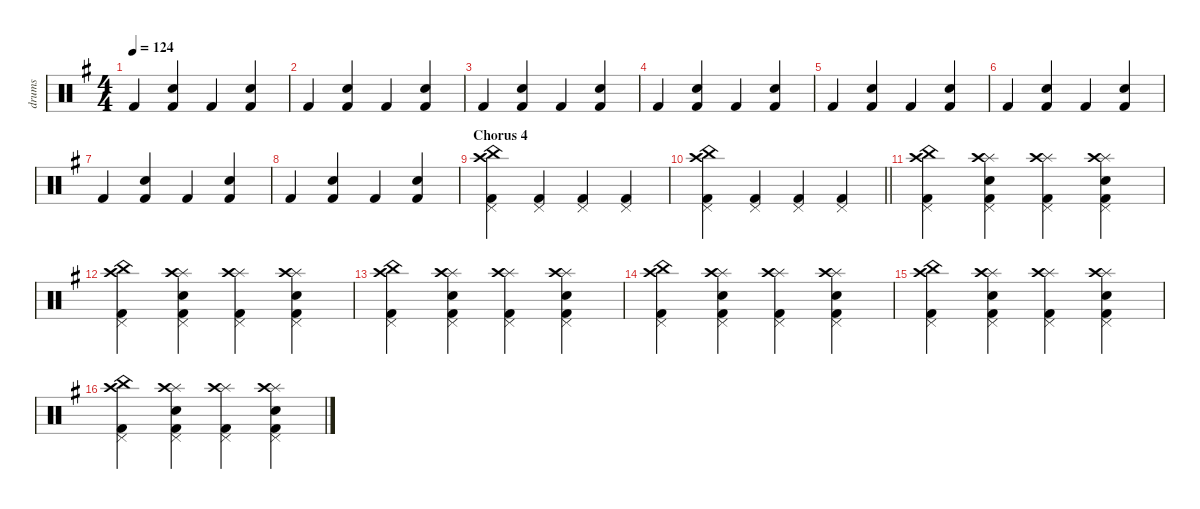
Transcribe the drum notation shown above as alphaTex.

\defaultSystemsLayout 4
\hideDynamics
\bracketExtendMode nobrackets
\otherSystemsTrackNameOrientation horizontal
\track ("drums" "drums") {instrument percussion}
\staff {score}
\articulation defaults
\ts (4 4)
\tempo 124
\clef neutral
\scale
1.07945
\ks eminor "Kick (hit) 2"{acc forcenatural}.4{dy mf beam Up}
("Kick (hit) 2"{acc forcenatural} "Snare (hit) 2"{acc forcenatural}).4{beam Up} "Kick (hit) 2"{acc forcenatural}.4{beam Up} ("Kick (hit) 2"{acc forcenatural} "Snare (hit) 2"{acc forcenatural}).4{beam Up} |
\scale
0.973518 "Kick (hit) 2"{acc forcenatural}.4{beam Up} ("Kick (hit) 2"{acc forcenatural} "Snare (hit) 2"{acc forcenatural}).4{beam Up} "Kick (hit) 2"{acc forcenatural}.4{beam Up} ("Kick (hit) 2"{acc forcenatural} "Snare (hit) 2"{acc forcenatural}).4{beam Up} |
\scale
0.973518 "Kick (hit) 2"{acc forcenatural}.4{beam Up} ("Kick (hit) 2"{acc forcenatural} "Snare (hit) 2"{acc forcenatural}).4{beam Up} "Kick (hit) 2"{acc forcenatural}.4{beam Up} ("Kick (hit) 2"{acc forcenatural} "Snare (hit) 2"{acc forcenatural}).4{beam Up} |
\scale
0.973518 "Kick (hit) 2"{acc forcenatural}.4{beam Up} ("Kick (hit) 2"{acc forcenatural} "Snare (hit) 2"{acc forcenatural}).4{beam Up} "Kick (hit) 2"{acc forcenatural}.4{beam Up} ("Kick (hit) 2"{acc forcenatural} "Snare (hit) 2"{acc forcenatural}).4{beam Up} |
\scale
1.07945 "Kick (hit) 2"{acc forcenatural}.4{beam Up} ("Kick (hit) 2"{acc forcenatural} "Snare (hit) 2"{acc forcenatural}).4{beam Up} "Kick (hit) 2"{acc forcenatural}.4{beam Up} ("Kick (hit) 2"{acc forcenatural} "Snare (hit) 2"{acc forcenatural}).4{beam Up} |
\scale
0.973518 "Kick (hit) 2"{acc forcenatural}.4{beam Up} ("Kick (hit) 2"{acc forcenatural} "Snare (hit) 2"{acc forcenatural}).4{beam Up} "Kick (hit) 2"{acc forcenatural}.4{beam Up} ("Kick (hit) 2"{acc forcenatural} "Snare (hit) 2"{acc forcenatural}).4{beam Up} |
\scale
0.973518 "Kick (hit) 2"{acc forcenatural}.4{beam Up} ("Kick (hit) 2"{acc forcenatural} "Snare (hit) 2"{acc forcenatural}).4{beam Up} "Kick (hit) 2"{acc forcenatural}.4{beam Up} ("Kick (hit) 2"{acc forcenatural} "Snare (hit) 2"{acc forcenatural}).4{beam Up} |
\scale
0.973518 "Kick (hit) 2"{acc forcenatural}.4{beam Up} ("Kick (hit) 2"{acc forcenatural} "Snare (hit) 2"{acc forcenatural}).4{beam Up} "Kick (hit) 2"{acc forcenatural}.4{beam Up} ("Kick (hit) 2"{acc forcenatural} "Snare (hit) 2"{acc forcenatural}).4{beam Up} |
\section ("" "Chorus 4")
\scale
1.07945 ("Kick (hit) 2"{acc forcenatural} "China (hit)"{acc forcenatural} "Crash high (hit)"{acc forcenatural} "Pedal Hi-Hat (hit)"{acc forcenatural}).4{beam Down} ("Kick (hit) 2"{acc forcenatural} "Pedal Hi-Hat (hit)"{acc forcenatural}).4{beam Up} ("Kick (hit) 2"{acc forcenatural} "Pedal Hi-Hat (hit)"{acc forcenatural}).4{beam Up} ("Kick (hit) 2"{acc forcenatural} "Pedal Hi-Hat (hit)"{acc forcenatural}).4{beam Up} |
\scale
0.973518
\barLineRight lightlight
("Kick (hit) 2"{acc forcenatural} "China (hit)"{acc forcenatural} "Crash high (hit)"{acc forcenatural} "Pedal Hi-Hat (hit)"{acc forcenatural}).4{beam Down} ("Kick (hit) 2"{acc forcenatural} "Pedal Hi-Hat (hit)"{acc forcenatural}).4{beam Up} ("Kick (hit) 2"{acc forcenatural} "Pedal Hi-Hat (hit)"{acc forcenatural}).4{beam Up} ("Kick (hit) 2"{acc forcenatural} "Pedal Hi-Hat (hit)"{acc forcenatural}).4{beam Up} |
\scale
0.973518 ("Kick (hit) 2"{acc forcenatural} "China (hit)"{acc forcenatural} "Crash high (hit)"{acc forcenatural} "Pedal Hi-Hat (hit)"{acc forcenatural}).4{beam Down} ("Kick (hit) 2"{acc forcenatural} "Pedal Hi-Hat (hit)"{acc forcenatural} "Snare (hit) 2"{acc forcenatural} "Splash (hit)"{acc forcenatural} "Crash high (hit)"{acc forcenatural}).4{beam Down} ("Kick (hit) 2"{acc forcenatural} "Pedal Hi-Hat (hit)"{acc forcenatural} "Splash (hit)"{acc forcenatural} "Crash high (hit)"{acc forcenatural}).4{beam Down} ("Kick (hit) 2"{acc forcenatural} "Pedal Hi-Hat (hit)"{acc forcenatural} "Snare (hit) 2"{acc forcenatural} "Splash (hit)"{acc forcenatural} "Crash high (hit)"{acc forcenatural}).4{beam Down} |
\scale
0.973518 ("Kick (hit) 2"{acc forcenatural} "China (hit)"{acc forcenatural} "Crash high (hit)"{acc forcenatural} "Pedal Hi-Hat (hit)"{acc forcenatural}).4{beam Down} ("Kick (hit) 2"{acc forcenatural} "Pedal Hi-Hat (hit)"{acc forcenatural} "Snare (hit) 2"{acc forcenatural} "Splash (hit)"{acc forcenatural} "Crash high (hit)"{acc forcenatural}).4{beam Down} ("Kick (hit) 2"{acc forcenatural} "Pedal Hi-Hat (hit)"{acc forcenatural} "Splash (hit)"{acc forcenatural} "Crash high (hit)"{acc forcenatural}).4{beam Down} ("Kick (hit) 2"{acc forcenatural} "Pedal Hi-Hat (hit)"{acc forcenatural} "Snare (hit) 2"{acc forcenatural} "Splash (hit)"{acc forcenatural} "Crash high (hit)"{acc forcenatural}).4{beam Down} |
\scale
1.07945 ("Kick (hit) 2"{acc forcenatural} "China (hit)"{acc forcenatural} "Crash high (hit)"{acc forcenatural} "Pedal Hi-Hat (hit)"{acc forcenatural}).4{beam Down} ("Kick (hit) 2"{acc forcenatural} "Pedal Hi-Hat (hit)"{acc forcenatural} "Snare (hit) 2"{acc forcenatural} "Splash (hit)"{acc forcenatural} "Crash high (hit)"{acc forcenatural}).4{beam Down} ("Kick (hit) 2"{acc forcenatural} "Pedal Hi-Hat (hit)"{acc forcenatural} "Splash (hit)"{acc forcenatural} "Crash high (hit)"{acc forcenatural}).4{beam Down} ("Kick (hit) 2"{acc forcenatural} "Pedal Hi-Hat (hit)"{acc forcenatural} "Snare (hit) 2"{acc forcenatural} "Splash (hit)"{acc forcenatural} "Crash high (hit)"{acc forcenatural}).4{beam Down} |
\scale
0.973518 ("Kick (hit) 2"{acc forcenatural} "China (hit)"{acc forcenatural} "Crash high (hit)"{acc forcenatural} "Pedal Hi-Hat (hit)"{acc forcenatural}).4{beam Down} ("Kick (hit) 2"{acc forcenatural} "Pedal Hi-Hat (hit)"{acc forcenatural} "Snare (hit) 2"{acc forcenatural} "Splash (hit)"{acc forcenatural} "Crash high (hit)"{acc forcenatural}).4{beam Down} ("Kick (hit) 2"{acc forcenatural} "Pedal Hi-Hat (hit)"{acc forcenatural} "Splash (hit)"{acc forcenatural} "Crash high (hit)"{acc forcenatural}).4{beam Down} ("Kick (hit) 2"{acc forcenatural} "Pedal Hi-Hat (hit)"{acc forcenatural} "Snare (hit) 2"{acc forcenatural} "Splash (hit)"{acc forcenatural} "Crash high (hit)"{acc forcenatural}).4{beam Down} |
\scale
0.973518 ("Kick (hit) 2"{acc forcenatural} "China (hit)"{acc forcenatural} "Crash high (hit)"{acc forcenatural} "Pedal Hi-Hat (hit)"{acc forcenatural}).4{beam Down} ("Kick (hit) 2"{acc forcenatural} "Pedal Hi-Hat (hit)"{acc forcenatural} "Snare (hit) 2"{acc forcenatural} "Splash (hit)"{acc forcenatural} "Crash high (hit)"{acc forcenatural}).4{beam Down} ("Kick (hit) 2"{acc forcenatural} "Pedal Hi-Hat (hit)"{acc forcenatural} "Splash (hit)"{acc forcenatural} "Crash high (hit)"{acc forcenatural}).4{beam Down} ("Kick (hit) 2"{acc forcenatural} "Pedal Hi-Hat (hit)"{acc forcenatural} "Snare (hit) 2"{acc forcenatural} "Splash (hit)"{acc forcenatural} "Crash high (hit)"{acc forcenatural}).4{beam Down} |
\scale
0.973518 ("Kick (hit) 2"{acc forcenatural} "China (hit)"{acc forcenatural} "Crash high (hit)"{acc forcenatural} "Pedal Hi-Hat (hit)"{acc forcenatural}).4{beam Down} ("Kick (hit) 2"{acc forcenatural} "Pedal Hi-Hat (hit)"{acc forcenatural} "Snare (hit) 2"{acc forcenatural} "Splash (hit)"{acc forcenatural} "Crash high (hit)"{acc forcenatural}).4{beam Down} ("Kick (hit) 2"{acc forcenatural} "Pedal Hi-Hat (hit)"{acc forcenatural} "Splash (hit)"{acc forcenatural} "Crash high (hit)"{acc forcenatural}).4{beam Down} ("Kick (hit) 2"{acc forcenatural} "Pedal Hi-Hat (hit)"{acc forcenatural} "Snare (hit) 2"{acc forcenatural} "Splash (hit)"{acc forcenatural} "Crash high (hit)"{acc forcenatural}).4{beam Down}
